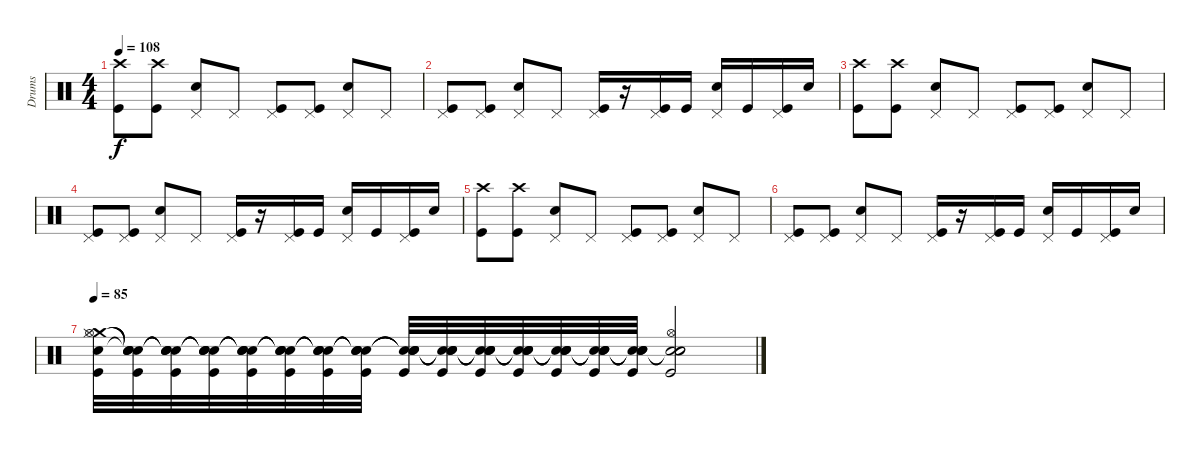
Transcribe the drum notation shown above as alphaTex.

\track ("Drums" "Drums") {instrument percussion}
\staff {score}
\articulation defaults
\ts (4 4)
\tempo 108
\clef neutral
\ks c
("Crash high (hit)" "Kick (hit)").8{dy f} ("Crash high (hit)" "Kick (hit)").8 ("Pedal Hi-Hat (hit)" "Electric Snare (hit)").8 "Pedal Hi-Hat (hit)".8 ("Pedal Hi-Hat (hit)" "Kick (hit)").8 ("Pedal Hi-Hat (hit)" "Kick (hit)").8 ("Pedal Hi-Hat (hit)" "Electric Snare (hit)").8 "Pedal Hi-Hat (hit)".8 |
("Pedal Hi-Hat (hit)" "Kick (hit)").8 ("Pedal Hi-Hat (hit)" "Kick (hit)").8 ("Pedal Hi-Hat (hit)" "Electric Snare (hit)").8 "Pedal Hi-Hat (hit)".8 ("Pedal Hi-Hat (hit)" "Kick (hit)").16 r.16 ("Pedal Hi-Hat (hit)" "Kick (hit)").16 "Kick (hit)".16 ("Pedal Hi-Hat (hit)" "Electric Snare (hit)").16 "Kick (hit)".16 ("Pedal Hi-Hat (hit)" "Kick (hit)").16 "Electric Snare (hit)".16 |
("Crash high (hit)" "Kick (hit)").8 ("Crash high (hit)" "Kick (hit)").8 ("Pedal Hi-Hat (hit)" "Electric Snare (hit)").8 "Pedal Hi-Hat (hit)".8 ("Pedal Hi-Hat (hit)" "Kick (hit)").8 ("Pedal Hi-Hat (hit)" "Kick (hit)").8 ("Pedal Hi-Hat (hit)" "Electric Snare (hit)").8 "Pedal Hi-Hat (hit)".8 |
("Pedal Hi-Hat (hit)" "Kick (hit)").8 ("Pedal Hi-Hat (hit)" "Kick (hit)").8 ("Pedal Hi-Hat (hit)" "Electric Snare (hit)").8 "Pedal Hi-Hat (hit)".8 ("Pedal Hi-Hat (hit)" "Kick (hit)").16 r.16 ("Pedal Hi-Hat (hit)" "Kick (hit)").16 "Kick (hit)".16 ("Pedal Hi-Hat (hit)" "Electric Snare (hit)").16 "Kick (hit)".16 ("Pedal Hi-Hat (hit)" "Kick (hit)").16 "Electric Snare (hit)".16 |
("Crash high (hit)" "Kick (hit)").8 ("Crash high (hit)" "Kick (hit)").8 ("Pedal Hi-Hat (hit)" "Electric Snare (hit)").8 "Pedal Hi-Hat (hit)".8 ("Pedal Hi-Hat (hit)" "Kick (hit)").8 ("Pedal Hi-Hat (hit)" "Kick (hit)").8 ("Pedal Hi-Hat (hit)" "Electric Snare (hit)").8 "Pedal Hi-Hat (hit)".8 |
("Pedal Hi-Hat (hit)" "Kick (hit)").8 ("Pedal Hi-Hat (hit)" "Kick (hit)").8 ("Pedal Hi-Hat (hit)" "Electric Snare (hit)").8 "Pedal Hi-Hat (hit)".8 ("Pedal Hi-Hat (hit)" "Kick (hit)").16 r.16 ("Pedal Hi-Hat (hit)" "Kick (hit)").16 "Kick (hit)".16 ("Pedal Hi-Hat (hit)" "Electric Snare (hit)").16 "Kick (hit)".16 ("Pedal Hi-Hat (hit)" "Kick (hit)").16 "Electric Snare (hit)".16 |
\tempo 85
("Crash medium (hit)" "Hi-Hat (open)" "Hi-Hat (closed)" "Electric Snare (hit)" "Kick (hit)").32 ("Snare (hit)"{t} "Snare (hit)"{t} "Snare (hit)"{t} "Snare (hit)"{t} "Kick (hit)").32 ("Snare (hit)"{t} "Snare (hit)"{t} "Snare (hit)"{t} "Snare (hit)"{t} "Kick (hit)").32 ("Snare (hit)"{t} "Snare (hit)"{t} "Snare (hit)"{t} "Snare (hit)"{t} "Kick (hit)").32 ("Snare (hit)"{t} "Snare (hit)"{t} "Snare (hit)"{t} "Snare (hit)"{t} "Kick (hit)").32 ("Snare (hit)"{t} "Snare (hit)"{t} "Snare (hit)"{t} "Snare (hit)"{t} "Kick (hit)").32 ("Snare (hit)"{t} "Snare (hit)"{t} "Snare (hit)"{t} "Snare (hit)"{t} "Kick (hit)").32 ("Snare (hit)"{t} "Snare (hit)"{t} "Snare (hit)"{t} "Snare (hit)"{t} "Kick (hit)").32 ("Snare (hit)"{t} "Snare (hit)"{t} "Snare (hit)"{t} "Snare (hit)"{t} "Kick (hit)").32 ("Snare (hit)"{t} "Snare (hit)"{t} "Snare (hit)"{t} "Snare (hit)"{t} "Kick (hit)").32 ("Snare (hit)"{t} "Snare (hit)"{t} "Snare (hit)"{t} "Snare (hit)"{t} "Kick (hit)").32 ("Snare (hit)"{t} "Snare (hit)"{t} "Snare (hit)"{t} "Snare (hit)"{t} "Kick (hit)").32 ("Snare (hit)"{t} "Snare (hit)"{t} "Snare (hit)"{t} "Snare (hit)"{t} "Kick (hit)").32 ("Snare (hit)"{t} "Snare (hit)"{t} "Snare (hit)"{t} "Snare (hit)"{t} "Kick (hit)").32 ("Snare (hit)"{t} "Snare (hit)"{t} "Snare (hit)"{t} "Snare (hit)"{t} "Kick (hit)").32 ("Snare (hit)"{t} "Snare (hit)"{t} "Hi-Hat (open)" "Electric Snare (hit)" "Kick (hit)").2
